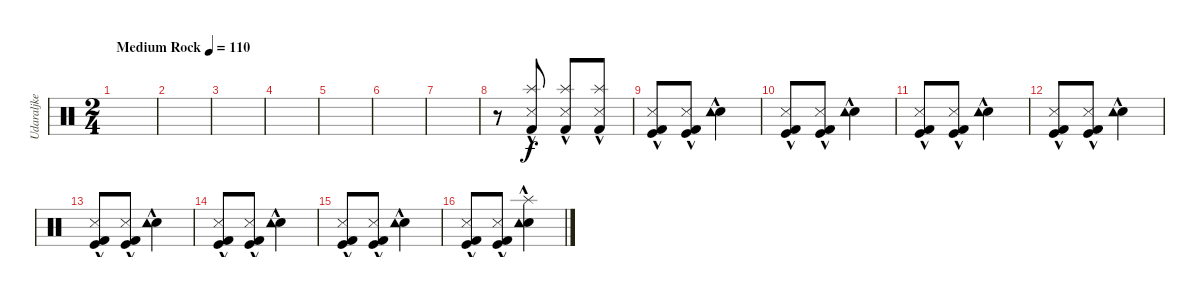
\track ("Udaraljke" "Udaraljke") {instrument percussion}
\staff {score}
\articulation defaults
\ts (2 4)
\tempo (110 "Medium Rock")
\clef neutral
\ks c
|
|
|
|
|
|
|
r.8 ("Kick (hit) 2"{hac} "Splash (hit)"{hac} "Snare (side stick) 3"{hac}).8 ("Kick (hit) 2"{hac} "Splash (hit)"{hac} "Snare (side stick) 3"{hac}).8 ("Kick (hit) 2"{hac} "Splash (hit)"{hac} "Snare (side stick) 3"{hac}).8 |
("Kick (hit) 2"{hac} "Kick (hit)"{hac} "Snare (side stick) 3"{hac}).8 ("Kick (hit) 2"{hac} "Kick (hit)"{hac} "Snare (side stick) 3"{hac}).8 ("Snare (hit) 2"{hac} "Tambourine (hit)"{hac}).4 |
("Kick (hit) 2"{hac} "Kick (hit)"{hac} "Snare (side stick) 3"{hac}).8 ("Kick (hit) 2"{hac} "Kick (hit)"{hac} "Snare (side stick) 3"{hac}).8 ("Snare (hit) 2"{hac} "Tambourine (hit)"{hac}).4 |
("Kick (hit) 2"{hac} "Kick (hit)"{hac} "Snare (side stick) 3"{hac}).8 ("Kick (hit) 2"{hac} "Kick (hit)"{hac} "Snare (side stick) 3"{hac}).8 ("Snare (hit) 2"{hac} "Tambourine (hit)"{hac}).4 |
("Kick (hit) 2"{hac} "Kick (hit)"{hac} "Snare (side stick) 3"{hac}).8 ("Kick (hit) 2"{hac} "Kick (hit)"{hac} "Snare (side stick) 3"{hac}).8 ("Snare (hit) 2"{hac} "Tambourine (hit)"{hac}).4 |
("Kick (hit) 2"{hac} "Kick (hit)"{hac} "Snare (side stick) 3"{hac}).8 ("Kick (hit) 2"{hac} "Kick (hit)"{hac} "Snare (side stick) 3"{hac}).8 ("Snare (hit) 2"{hac} "Tambourine (hit)"{hac}).4 |
("Kick (hit) 2"{hac} "Kick (hit)"{hac} "Snare (side stick) 3"{hac}).8 ("Kick (hit) 2"{hac} "Kick (hit)"{hac} "Snare (side stick) 3"{hac}).8 ("Snare (hit) 2"{hac} "Tambourine (hit)"{hac}).4 |
("Kick (hit) 2"{hac} "Kick (hit)"{hac} "Snare (side stick) 3"{hac}).8 ("Kick (hit) 2"{hac} "Kick (hit)"{hac} "Snare (side stick) 3"{hac}).8 ("Snare (hit) 2"{hac} "Tambourine (hit)"{hac}).4 |
("Kick (hit) 2"{hac} "Kick (hit)"{hac} "Snare (side stick) 3"{hac}).8 ("Kick (hit) 2"{hac} "Kick (hit)"{hac} "Snare (side stick) 3"{hac}).8 ("Snare (hit) 2"{hac} "Splash (hit)"{hac} "Tambourine (hit)"{hac}).4
